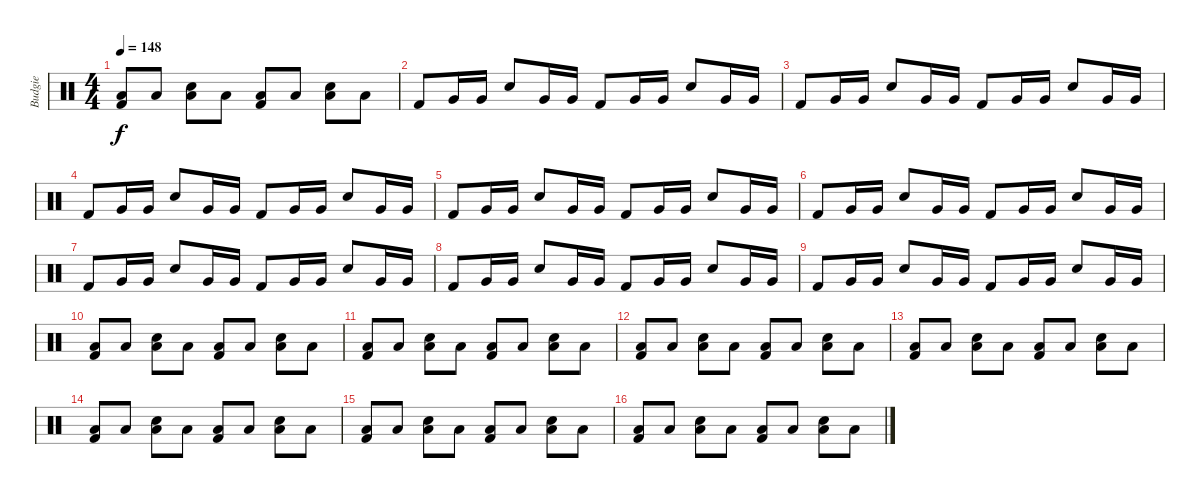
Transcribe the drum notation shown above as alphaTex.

\track ("Budgie" "Budgie") {instrument percussion}
\staff {score}
\articulation defaults
\ts (4 4)
\tempo 148
\clef neutral
\ks c
("Low Floor Tom (hit)" "Kick (hit) 2").8{dy f} "Low Floor Tom (hit)".8 ("Snare (hit) 2" "Low Floor Tom (hit)").8 "Low Floor Tom (hit)".8 ("Low Floor Tom (hit)" "Kick (hit) 2").8 "Low Floor Tom (hit)".8 ("Snare (hit) 2" "Low Floor Tom (hit)").8 "Low Floor Tom (hit)".8 |
"Kick (hit) 2".8 "Very Low Tom (hit)".16 "Very Low Tom (hit)".16 "Snare (hit) 2".8 "Very Low Tom (hit)".16 "Very Low Tom (hit)".16 "Kick (hit) 2".8 "Very Low Tom (hit)".16 "Very Low Tom (hit)".16 "Snare (hit) 2".8 "Very Low Tom (hit)".16 "Very Low Tom (hit)".16 |
"Kick (hit) 2".8 "Very Low Tom (hit)".16 "Very Low Tom (hit)".16 "Snare (hit) 2".8 "Very Low Tom (hit)".16 "Very Low Tom (hit)".16 "Kick (hit) 2".8 "Very Low Tom (hit)".16 "Very Low Tom (hit)".16 "Snare (hit) 2".8 "Very Low Tom (hit)".16 "Very Low Tom (hit)".16 |
"Kick (hit) 2".8 "Very Low Tom (hit)".16 "Very Low Tom (hit)".16 "Snare (hit) 2".8 "Very Low Tom (hit)".16 "Very Low Tom (hit)".16 "Kick (hit) 2".8 "Very Low Tom (hit)".16 "Very Low Tom (hit)".16 "Snare (hit) 2".8 "Very Low Tom (hit)".16 "Very Low Tom (hit)".16 |
"Kick (hit) 2".8 "Very Low Tom (hit)".16 "Very Low Tom (hit)".16 "Snare (hit) 2".8 "Very Low Tom (hit)".16 "Very Low Tom (hit)".16 "Kick (hit) 2".8 "Very Low Tom (hit)".16 "Very Low Tom (hit)".16 "Snare (hit) 2".8 "Very Low Tom (hit)".16 "Very Low Tom (hit)".16 |
"Kick (hit) 2".8 "Very Low Tom (hit)".16 "Very Low Tom (hit)".16 "Snare (hit) 2".8 "Very Low Tom (hit)".16 "Very Low Tom (hit)".16 "Kick (hit) 2".8 "Very Low Tom (hit)".16 "Very Low Tom (hit)".16 "Snare (hit) 2".8 "Very Low Tom (hit)".16 "Very Low Tom (hit)".16 |
"Kick (hit) 2".8 "Very Low Tom (hit)".16 "Very Low Tom (hit)".16 "Snare (hit) 2".8 "Very Low Tom (hit)".16 "Very Low Tom (hit)".16 "Kick (hit) 2".8 "Very Low Tom (hit)".16 "Very Low Tom (hit)".16 "Snare (hit) 2".8 "Very Low Tom (hit)".16 "Very Low Tom (hit)".16 |
"Kick (hit) 2".8 "Very Low Tom (hit)".16 "Very Low Tom (hit)".16 "Snare (hit) 2".8 "Very Low Tom (hit)".16 "Very Low Tom (hit)".16 "Kick (hit) 2".8 "Very Low Tom (hit)".16 "Very Low Tom (hit)".16 "Snare (hit) 2".8 "Very Low Tom (hit)".16 "Very Low Tom (hit)".16 |
"Kick (hit) 2".8 "Very Low Tom (hit)".16 "Very Low Tom (hit)".16 "Snare (hit) 2".8 "Very Low Tom (hit)".16 "Very Low Tom (hit)".16 "Kick (hit) 2".8 "Very Low Tom (hit)".16 "Very Low Tom (hit)".16 "Snare (hit) 2".8 "Very Low Tom (hit)".16 "Very Low Tom (hit)".16 |
("Low Floor Tom (hit)" "Kick (hit) 2").8 "Low Floor Tom (hit)".8 ("Snare (hit) 2" "Low Floor Tom (hit)").8 "Low Floor Tom (hit)".8 ("Low Floor Tom (hit)" "Kick (hit) 2").8 "Low Floor Tom (hit)".8 ("Snare (hit) 2" "Low Floor Tom (hit)").8 "Low Floor Tom (hit)".8 |
("Low Floor Tom (hit)" "Kick (hit) 2").8 "Low Floor Tom (hit)".8 ("Snare (hit) 2" "Low Floor Tom (hit)").8 "Low Floor Tom (hit)".8 ("Low Floor Tom (hit)" "Kick (hit) 2").8 "Low Floor Tom (hit)".8 ("Snare (hit) 2" "Low Floor Tom (hit)").8 "Low Floor Tom (hit)".8 |
("Low Floor Tom (hit)" "Kick (hit) 2").8 "Low Floor Tom (hit)".8 ("Snare (hit) 2" "Low Floor Tom (hit)").8 "Low Floor Tom (hit)".8 ("Low Floor Tom (hit)" "Kick (hit) 2").8 "Low Floor Tom (hit)".8 ("Snare (hit) 2" "Low Floor Tom (hit)").8 "Low Floor Tom (hit)".8 |
("Low Floor Tom (hit)" "Kick (hit) 2").8 "Low Floor Tom (hit)".8 ("Snare (hit) 2" "Low Floor Tom (hit)").8 "Low Floor Tom (hit)".8 ("Low Floor Tom (hit)" "Kick (hit) 2").8 "Low Floor Tom (hit)".8 ("Snare (hit) 2" "Low Floor Tom (hit)").8 "Low Floor Tom (hit)".8 |
("Low Floor Tom (hit)" "Kick (hit) 2").8 "Low Floor Tom (hit)".8 ("Snare (hit) 2" "Low Floor Tom (hit)").8 "Low Floor Tom (hit)".8 ("Low Floor Tom (hit)" "Kick (hit) 2").8 "Low Floor Tom (hit)".8 ("Snare (hit) 2" "Low Floor Tom (hit)").8 "Low Floor Tom (hit)".8 |
("Low Floor Tom (hit)" "Kick (hit) 2").8 "Low Floor Tom (hit)".8 ("Snare (hit) 2" "Low Floor Tom (hit)").8 "Low Floor Tom (hit)".8 ("Low Floor Tom (hit)" "Kick (hit) 2").8 "Low Floor Tom (hit)".8 ("Snare (hit) 2" "Low Floor Tom (hit)").8 "Low Floor Tom (hit)".8 |
("Low Floor Tom (hit)" "Kick (hit) 2").8 "Low Floor Tom (hit)".8 ("Snare (hit) 2" "Low Floor Tom (hit)").8 "Low Floor Tom (hit)".8 ("Low Floor Tom (hit)" "Kick (hit) 2").8 "Low Floor Tom (hit)".8 ("Snare (hit) 2" "Low Floor Tom (hit)").8 "Low Floor Tom (hit)".8
